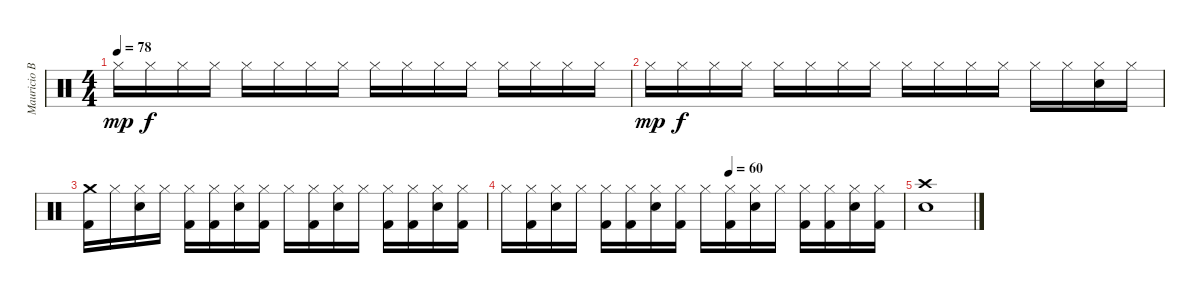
\track ("Mauricio Basualto" "Mauricio B") {instrument percussion}
\staff {score}
\articulation defaults
\ts (4 4)
\tempo 78
\clef neutral
\ks c "Hi-Hat (closed)".16{dy mp} "Hi-Hat (closed)".16{dy f} "Hi-Hat (closed)".16 "Hi-Hat (closed)".16 "Hi-Hat (closed)".16 "Hi-Hat (closed)".16 "Hi-Hat (closed)".16 "Hi-Hat (closed)".16 "Hi-Hat (closed)".16 "Hi-Hat (closed)".16 "Hi-Hat (closed)".16 "Hi-Hat (closed)".16 "Hi-Hat (closed)".16 "Hi-Hat (closed)".16 "Hi-Hat (closed)".16 "Hi-Hat (closed)".16
|
"Hi-Hat (closed)".16{dy mp} "Hi-Hat (closed)".16{dy f} "Hi-Hat (closed)".16 "Hi-Hat (closed)".16 "Hi-Hat (closed)".16 "Hi-Hat (closed)".16 "Hi-Hat (closed)".16 "Hi-Hat (closed)".16 "Hi-Hat (closed)".16 "Hi-Hat (closed)".16 "Hi-Hat (closed)".16 "Hi-Hat (closed)".16 "Hi-Hat (closed)".16 "Hi-Hat (closed)".16 ("Hi-Hat (closed)" "Snare (hit) 2").16 "Hi-Hat (closed)".16 |
("Crash medium (hit)" "Kick (hit) 2").16 "Hi-Hat (closed)".16 ("Hi-Hat (closed)" "Snare (hit) 2").16 "Hi-Hat (closed)".16 ("Hi-Hat (closed)" "Kick (hit) 2").16 ("Hi-Hat (closed)" "Kick (hit) 2").16 ("Hi-Hat (closed)" "Snare (hit) 2").16 ("Hi-Hat (closed)" "Kick (hit) 2").16 "Hi-Hat (closed)".16 ("Hi-Hat (closed)" "Kick (hit) 2").16 ("Hi-Hat (closed)" "Snare (hit) 2").16 "Hi-Hat (closed)".16 ("Hi-Hat (closed)" "Kick (hit) 2").16 ("Hi-Hat (closed)" "Kick (hit) 2").16 ("Hi-Hat (closed)" "Snare (hit) 2").16 ("Hi-Hat (closed)" "Kick (hit) 2").16 |
\tempo (60 0.5625)
"Hi-Hat (closed)".16 ("Hi-Hat (closed)" "Kick (hit) 2").16 ("Hi-Hat (closed)" "Snare (hit) 2").16 "Hi-Hat (closed)".16 ("Hi-Hat (closed)" "Kick (hit) 2").16 ("Hi-Hat (closed)" "Kick (hit) 2").16 ("Hi-Hat (closed)" "Snare (hit) 2").16 ("Hi-Hat (closed)" "Kick (hit) 2").16 "Hi-Hat (closed)".16 ("Hi-Hat (closed)" "Kick (hit) 2").16 ("Hi-Hat (closed)" "Snare (hit) 2").16 "Hi-Hat (closed)".16 ("Hi-Hat (closed)" "Kick (hit) 2").16 ("Hi-Hat (closed)" "Kick (hit) 2").16 ("Hi-Hat (closed)" "Snare (hit) 2").16 ("Hi-Hat (closed)" "Kick (hit) 2").16 |
("Crash high (hit)" "Snare (hit) 2").1
